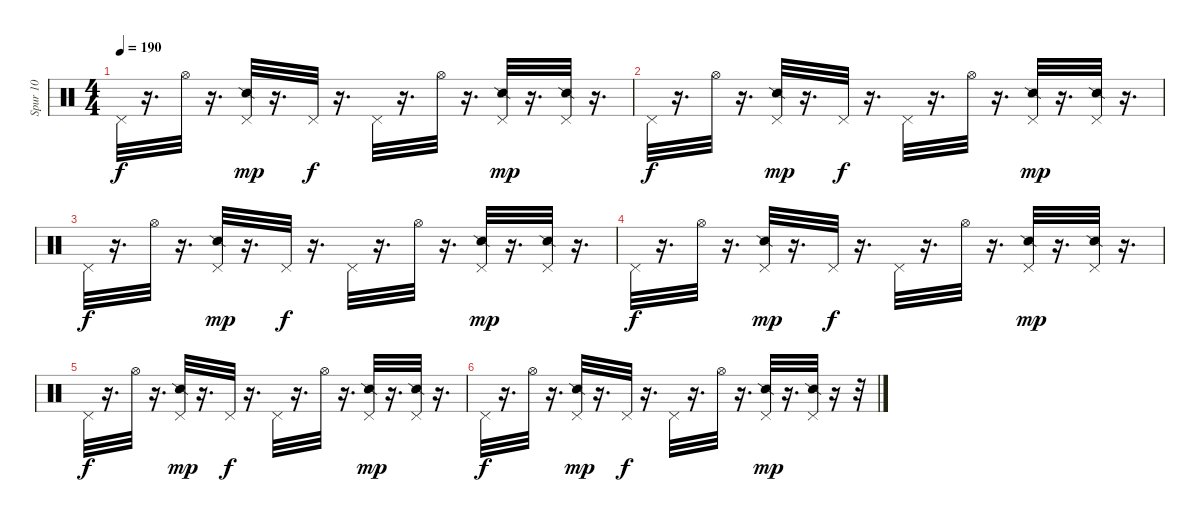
\track ("Spur 10" "Spur 10") {instrument percussion}
\staff {score}
\articulation defaults
\ts (4 4)
\tempo 190
\clef neutral
\ks c "Pedal Hi-Hat (hit)".32{dy f}
r.16{d} "Hi-Hat (open)".32 r.16{d} ("Snare (side stick) 2" "Pedal Hi-Hat (hit)").32{dy mp} r.16{d} "Pedal Hi-Hat (hit)".32{dy f} r.16{d} "Pedal Hi-Hat (hit)".32 r.16{d} "Hi-Hat (open)".32 r.16{d} ("Snare (side stick) 2" "Pedal Hi-Hat (hit)").32{dy mp} r.16{d} ("Snare (side stick) 2" "Pedal Hi-Hat (hit)").32 r.16{d} |
"Pedal Hi-Hat (hit)".32{dy f} r.16{d} "Hi-Hat (open)".32 r.16{d} ("Snare (side stick) 2" "Pedal Hi-Hat (hit)").32{dy mp} r.16{d} "Pedal Hi-Hat (hit)".32{dy f} r.16{d} "Pedal Hi-Hat (hit)".32 r.16{d} "Hi-Hat (open)".32 r.16{d} ("Snare (side stick) 2" "Pedal Hi-Hat (hit)").32{dy mp} r.16{d} ("Snare (side stick) 2" "Pedal Hi-Hat (hit)").32 r.16{d} |
"Pedal Hi-Hat (hit)".32{dy f} r.16{d} "Hi-Hat (open)".32 r.16{d} ("Snare (side stick) 2" "Pedal Hi-Hat (hit)").32{dy mp} r.16{d} "Pedal Hi-Hat (hit)".32{dy f} r.16{d} "Pedal Hi-Hat (hit)".32 r.16{d} "Hi-Hat (open)".32 r.16{d} ("Snare (side stick) 2" "Pedal Hi-Hat (hit)").32{dy mp} r.16{d} ("Snare (side stick) 2" "Pedal Hi-Hat (hit)").32 r.16{d} |
"Pedal Hi-Hat (hit)".32{dy f} r.16{d} "Hi-Hat (open)".32 r.16{d} ("Snare (side stick) 2" "Pedal Hi-Hat (hit)").32{dy mp} r.16{d} "Pedal Hi-Hat (hit)".32{dy f} r.16{d} "Pedal Hi-Hat (hit)".32 r.16{d} "Hi-Hat (open)".32 r.16{d} ("Snare (side stick) 2" "Pedal Hi-Hat (hit)").32{dy mp} r.16{d} ("Snare (side stick) 2" "Pedal Hi-Hat (hit)").32 r.16{d} |
"Pedal Hi-Hat (hit)".32{dy f} r.16{d} "Hi-Hat (open)".32 r.16{d} ("Snare (side stick) 2" "Pedal Hi-Hat (hit)").32{dy mp} r.16{d} "Pedal Hi-Hat (hit)".32{dy f} r.16{d} "Pedal Hi-Hat (hit)".32 r.16{d} "Hi-Hat (open)".32 r.16{d} ("Snare (side stick) 2" "Pedal Hi-Hat (hit)").32{dy mp} r.16{d} ("Snare (side stick) 2" "Pedal Hi-Hat (hit)").32 r.16{d} |
"Pedal Hi-Hat (hit)".32{dy f} r.16{d} "Hi-Hat (open)".32 r.16{d} ("Snare (side stick) 2" "Pedal Hi-Hat (hit)").32{dy mp} r.16{d} "Pedal Hi-Hat (hit)".32{dy f} r.16{d} "Pedal Hi-Hat (hit)".32 r.16{d} "Hi-Hat (open)".32 r.16{d} ("Snare (side stick) 2" "Pedal Hi-Hat (hit)").32{dy mp} r.16{d} ("Snare (side stick) 2" "Pedal Hi-Hat (hit)").32 r.16 r.32
